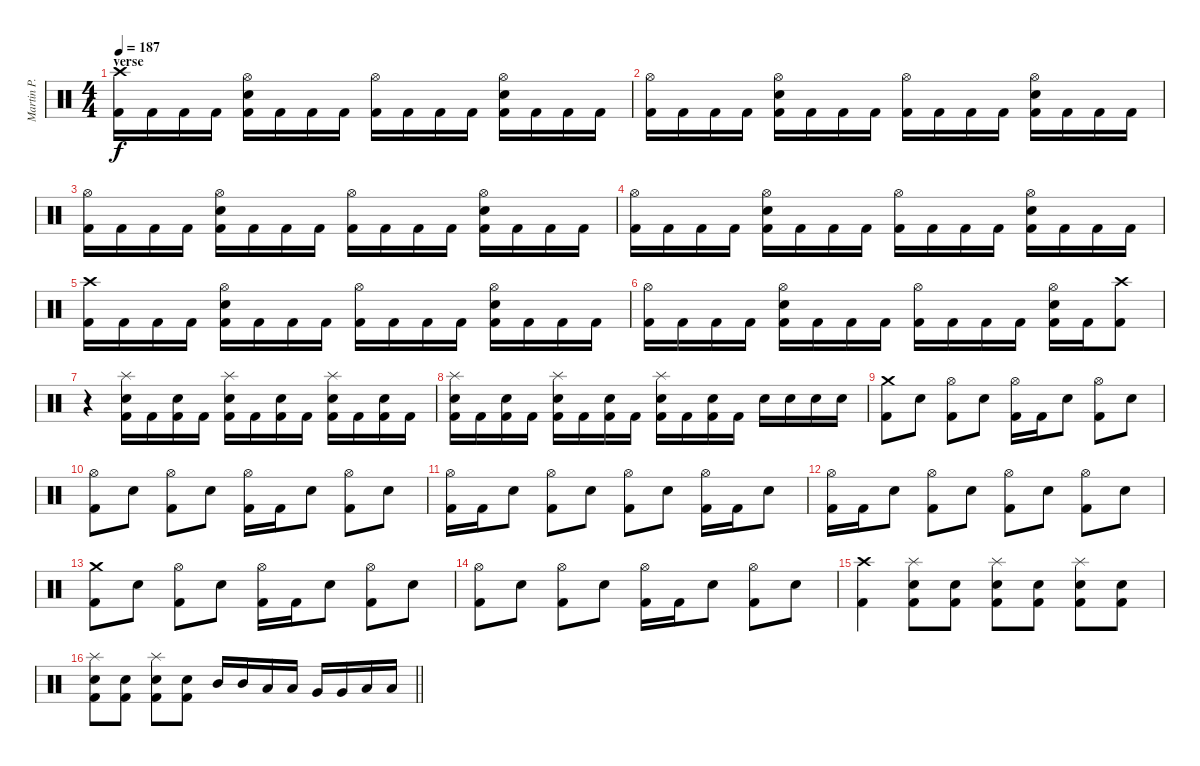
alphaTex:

\track ("Martin P." "Martin P.") {instrument percussion}
\staff {score}
\articulation defaults
\ts (4 4)
\section ("" "verse")
\tempo 187
\clef neutral
\ks c
("Kick (hit) 2" "Crash high (hit)").16{dy f} "Kick (hit) 2".16 "Kick (hit) 2".16 "Kick (hit) 2".16 ("Kick (hit) 2" "Electric Snare (hit)" "Hi-Hat (open)").16 "Kick (hit) 2".16 "Kick (hit) 2".16 "Kick (hit) 2".16 ("Kick (hit) 2" "Hi-Hat (open)").16 "Kick (hit) 2".16 "Kick (hit) 2".16 "Kick (hit) 2".16 ("Kick (hit) 2" "Electric Snare (hit)" "Hi-Hat (open)").16 "Kick (hit) 2".16 "Kick (hit) 2".16 "Kick (hit) 2".16 |
("Kick (hit) 2" "Hi-Hat (open)").16 "Kick (hit) 2".16 "Kick (hit) 2".16 "Kick (hit) 2".16 ("Kick (hit) 2" "Electric Snare (hit)" "Hi-Hat (open)").16 "Kick (hit) 2".16 "Kick (hit) 2".16 "Kick (hit) 2".16 ("Kick (hit) 2" "Hi-Hat (open)").16 "Kick (hit) 2".16 "Kick (hit) 2".16 "Kick (hit) 2".16 ("Kick (hit) 2" "Electric Snare (hit)" "Hi-Hat (open)").16 "Kick (hit) 2".16 "Kick (hit) 2".16 "Kick (hit) 2".16 |
("Kick (hit) 2" "Hi-Hat (open)").16 "Kick (hit) 2".16 "Kick (hit) 2".16 "Kick (hit) 2".16 ("Kick (hit) 2" "Electric Snare (hit)" "Hi-Hat (open)").16 "Kick (hit) 2".16 "Kick (hit) 2".16 "Kick (hit) 2".16 ("Kick (hit) 2" "Hi-Hat (open)").16 "Kick (hit) 2".16 "Kick (hit) 2".16 "Kick (hit) 2".16 ("Kick (hit) 2" "Electric Snare (hit)" "Hi-Hat (open)").16 "Kick (hit) 2".16 "Kick (hit) 2".16 "Kick (hit) 2".16 |
("Kick (hit) 2" "Hi-Hat (open)").16 "Kick (hit) 2".16 "Kick (hit) 2".16 "Kick (hit) 2".16 ("Kick (hit) 2" "Electric Snare (hit)" "Hi-Hat (open)").16 "Kick (hit) 2".16 "Kick (hit) 2".16 "Kick (hit) 2".16 ("Kick (hit) 2" "Hi-Hat (open)").16 "Kick (hit) 2".16 "Kick (hit) 2".16 "Kick (hit) 2".16 ("Kick (hit) 2" "Electric Snare (hit)" "Hi-Hat (open)").16 "Kick (hit) 2".16 "Kick (hit) 2".16 "Kick (hit) 2".16 |
("Kick (hit) 2" "Crash high (hit)").16 "Kick (hit) 2".16 "Kick (hit) 2".16 "Kick (hit) 2".16 ("Kick (hit) 2" "Electric Snare (hit)" "Hi-Hat (open)").16 "Kick (hit) 2".16 "Kick (hit) 2".16 "Kick (hit) 2".16 ("Kick (hit) 2" "Hi-Hat (open)").16 "Kick (hit) 2".16 "Kick (hit) 2".16 "Kick (hit) 2".16 ("Kick (hit) 2" "Electric Snare (hit)" "Hi-Hat (open)").16 "Kick (hit) 2".16 "Kick (hit) 2".16 "Kick (hit) 2".16 |
("Kick (hit) 2" "Hi-Hat (open)").16 "Kick (hit) 2".16 "Kick (hit) 2".16 "Kick (hit) 2".16 ("Kick (hit) 2" "Electric Snare (hit)" "Hi-Hat (open)").16 "Kick (hit) 2".16 "Kick (hit) 2".16 "Kick (hit) 2".16 ("Kick (hit) 2" "Hi-Hat (open)").16 "Kick (hit) 2".16 "Kick (hit) 2".16 "Kick (hit) 2".16 ("Kick (hit) 2" "Electric Snare (hit)" "Hi-Hat (open)").16 "Kick (hit) 2".16 ("Kick (hit) 2" "Crash high (hit)").8 |
r.4 ("Electric Snare (hit)" "Splash (hit)" "Kick (hit) 2").16 "Kick (hit) 2".16 ("Electric Snare (hit)" "Kick (hit) 2").16 "Kick (hit) 2".16 ("Electric Snare (hit)" "Splash (hit)" "Kick (hit) 2").16 "Kick (hit) 2".16 ("Electric Snare (hit)" "Kick (hit) 2").16 "Kick (hit) 2".16 ("Electric Snare (hit)" "Splash (hit)" "Kick (hit) 2").16 "Kick (hit) 2".16 ("Electric Snare (hit)" "Kick (hit) 2").16 "Kick (hit) 2".16 |
("Electric Snare (hit)" "Splash (hit)" "Kick (hit) 2").16 "Kick (hit) 2".16 ("Electric Snare (hit)" "Kick (hit) 2").16 "Kick (hit) 2".16 ("Electric Snare (hit)" "Splash (hit)" "Kick (hit) 2").16 "Kick (hit) 2".16 ("Electric Snare (hit)" "Kick (hit) 2").16 "Kick (hit) 2".16 ("Electric Snare (hit)" "Splash (hit)" "Kick (hit) 2").16 "Kick (hit) 2".16 ("Electric Snare (hit)" "Kick (hit) 2").16 "Kick (hit) 2".16 "Electric Snare (hit)".16 "Electric Snare (hit)".16 "Electric Snare (hit)".16 "Electric Snare (hit)".16 |
("Kick (hit) 2" "Crash medium (hit)").8 "Electric Snare (hit)".8 ("Kick (hit) 2" "Hi-Hat (open)").8 "Electric Snare (hit)".8 ("Kick (hit) 2" "Hi-Hat (open)").16 "Kick (hit) 2".16 "Electric Snare (hit)".8 ("Kick (hit) 2" "Hi-Hat (open)").8 "Electric Snare (hit)".8 |
("Kick (hit) 2" "Hi-Hat (open)").8 "Electric Snare (hit)".8 ("Kick (hit) 2" "Hi-Hat (open)").8 "Electric Snare (hit)".8 ("Kick (hit) 2" "Hi-Hat (open)").16 "Kick (hit) 2".16 "Electric Snare (hit)".8 ("Kick (hit) 2" "Hi-Hat (open)").8 "Electric Snare (hit)".8 |
("Kick (hit) 2" "Hi-Hat (open)").16 "Kick (hit) 2".16 "Electric Snare (hit)".8 ("Kick (hit) 2" "Hi-Hat (open)").8 "Electric Snare (hit)".8 ("Kick (hit) 2" "Hi-Hat (open)").8 "Electric Snare (hit)".8 ("Kick (hit) 2" "Hi-Hat (open)").16 "Kick (hit) 2".16 "Electric Snare (hit)".8 |
("Kick (hit) 2" "Hi-Hat (open)").16 "Kick (hit) 2".16 "Electric Snare (hit)".8 ("Kick (hit) 2" "Hi-Hat (open)").8 "Electric Snare (hit)".8 ("Kick (hit) 2" "Hi-Hat (open)").8 "Electric Snare (hit)".8 ("Kick (hit) 2" "Hi-Hat (open)").8 "Electric Snare (hit)".8 |
("Kick (hit) 2" "Crash medium (hit)").8 "Electric Snare (hit)".8 ("Kick (hit) 2" "Hi-Hat (open)").8 "Electric Snare (hit)".8 ("Kick (hit) 2" "Hi-Hat (open)").16 "Kick (hit) 2".16 "Electric Snare (hit)".8 ("Kick (hit) 2" "Hi-Hat (open)").8 "Electric Snare (hit)".8 |
("Kick (hit) 2" "Hi-Hat (open)").8 "Electric Snare (hit)".8 ("Kick (hit) 2" "Hi-Hat (open)").8 "Electric Snare (hit)".8 ("Kick (hit) 2" "Hi-Hat (open)").16 "Kick (hit) 2".16 "Electric Snare (hit)".8 ("Kick (hit) 2" "Hi-Hat (open)").8 "Electric Snare (hit)".8 |
("Kick (hit) 2" "Crash high (hit)").4 ("Electric Snare (hit)" "Splash (hit)" "Kick (hit) 2").8 ("Electric Snare (hit)" "Kick (hit) 2").8 ("Electric Snare (hit)" "Splash (hit)" "Kick (hit) 2").8 ("Electric Snare (hit)" "Kick (hit) 2").8 ("Electric Snare (hit)" "Splash (hit)" "Kick (hit) 2").8 ("Electric Snare (hit)" "Kick (hit) 2").8 |
\barLineRight lightlight
("Electric Snare (hit)" "Splash (hit)" "Kick (hit) 2").8 ("Electric Snare (hit)" "Kick (hit) 2").8 ("Electric Snare (hit)" "Splash (hit)" "Kick (hit) 2").8 ("Electric Snare (hit)" "Kick (hit) 2").8 "Mid Tom (hit)".16 "Mid Tom (hit)".16 "Low Tom (hit)".16 "Low Tom (hit)".16 "Very Low Tom (hit)".16 "Very Low Tom (hit)".16 "Low Floor Tom (hit)".16 "Low Floor Tom (hit)".16
